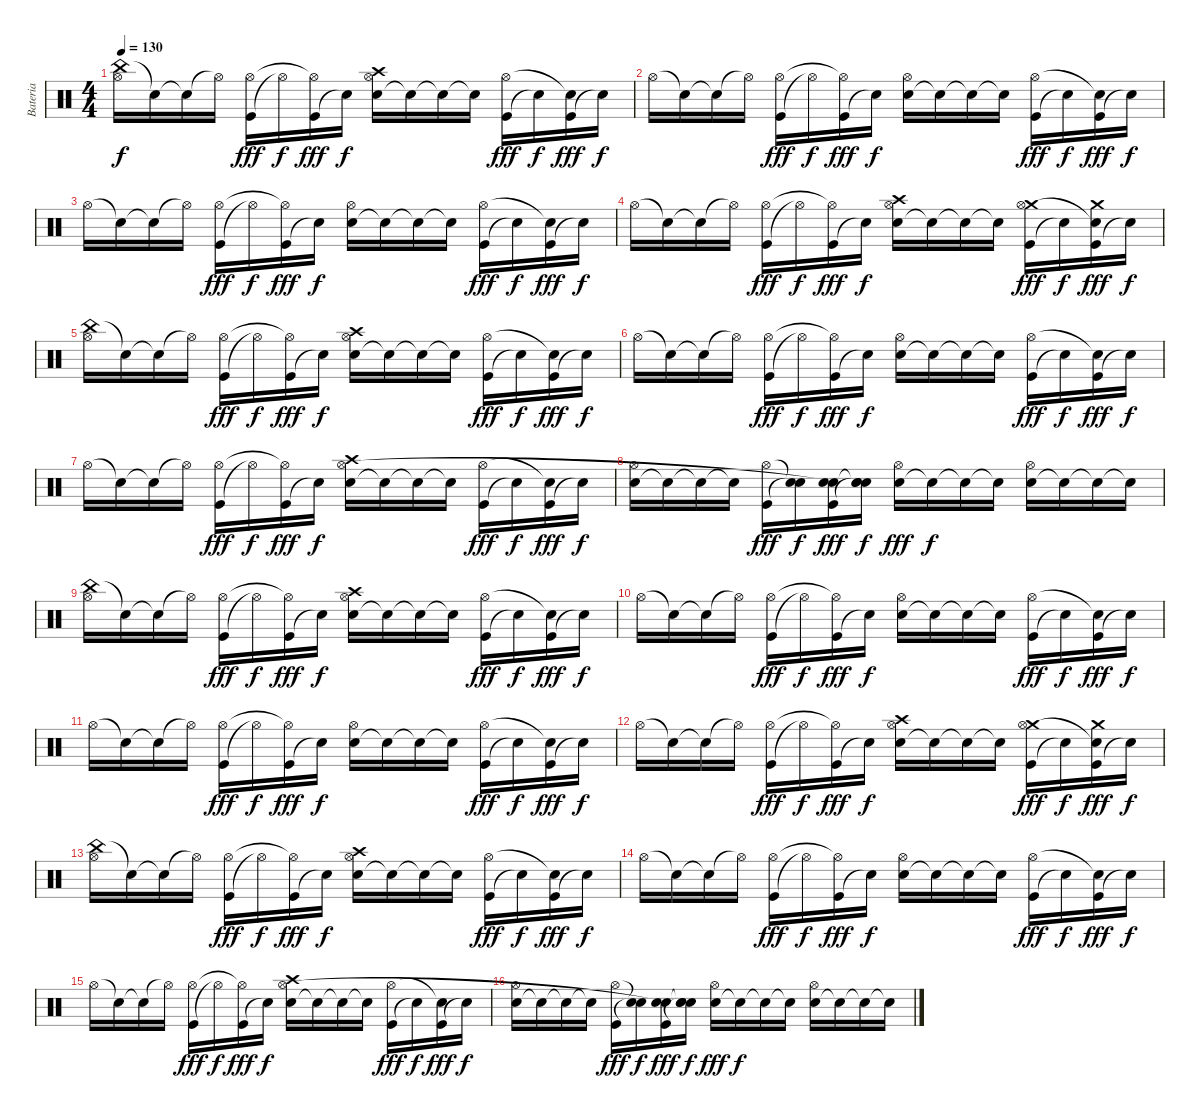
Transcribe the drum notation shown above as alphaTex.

\track ("Bateria" "Bateria") {instrument percussion}
\staff {score}
\articulation defaults
\ts (4 4)
\tempo 130
\clef neutral
\ks c
("China (hit)" "Hi-Hat (open)").16{dy f} "Snare (hit)"{t}.16 "Snare (hit)"{t}.16 "Hi-Hat (open)"{t}.16 ("Kick (hit)" "Hi-Hat (open)").16{dy fff} "Hi-Hat (open)"{t}.16{dy f} ("Kick (hit)" "Hi-Hat (open)"{t}).16{dy fff} "Snare (hit)"{t}.16{dy f} ("Electric Snare (hit)" "Crash high (hit)" "Hi-Hat (open)").16 "Snare (hit)"{t}.16 "Snare (hit)"{t}.16 "Snare (hit)"{t}.16 ("Kick (hit)" "Hi-Hat (open)").16{dy fff} "Snare (hit)"{t}.16{dy f} ("Kick (hit)" "Snare (hit)"{t}).16{dy fff} "Snare (hit)"{t}.16{dy f} |
"Hi-Hat (open)".16 "Snare (hit)"{t}.16 "Snare (hit)"{t}.16 "Hi-Hat (open)"{t}.16 ("Kick (hit)" "Hi-Hat (open)").16{dy fff} "Hi-Hat (open)"{t}.16{dy f} ("Kick (hit)" "Hi-Hat (open)"{t}).16{dy fff} "Snare (hit)"{t}.16{dy f} ("Electric Snare (hit)" "Hi-Hat (open)").16 "Snare (hit)"{t}.16 "Snare (hit)"{t}.16 "Snare (hit)"{t}.16 ("Kick (hit)" "Hi-Hat (open)").16{dy fff} "Snare (hit)"{t}.16{dy f} ("Kick (hit)" "Snare (hit)"{t}).16{dy fff} "Snare (hit)"{t}.16{dy f} |
"Hi-Hat (open)".16 "Snare (hit)"{t}.16 "Snare (hit)"{t}.16 "Hi-Hat (open)"{t}.16 ("Kick (hit)" "Hi-Hat (open)").16{dy fff} "Hi-Hat (open)"{t}.16{dy f} ("Kick (hit)" "Hi-Hat (open)"{t}).16{dy fff} "Snare (hit)"{t}.16{dy f} ("Electric Snare (hit)" "Hi-Hat (open)").16 "Snare (hit)"{t}.16 "Snare (hit)"{t}.16 "Snare (hit)"{t}.16 ("Kick (hit)" "Hi-Hat (open)").16{dy fff} "Snare (hit)"{t}.16{dy f} ("Kick (hit)" "Snare (hit)"{t}).16{dy fff} "Snare (hit)"{t}.16{dy f} |
"Hi-Hat (open)".16 "Snare (hit)"{t}.16 "Snare (hit)"{t}.16 "Hi-Hat (open)"{t}.16 ("Kick (hit)" "Hi-Hat (open)").16{dy fff} "Hi-Hat (open)"{t}.16{dy f} ("Kick (hit)" "Hi-Hat (open)"{t}).16{dy fff} "Snare (hit)"{t}.16{dy f} ("Electric Snare (hit)" "Crash high (hit)" "Hi-Hat (open)").16 "Snare (hit)"{t}.16 "Snare (hit)"{t}.16 "Snare (hit)"{t}.16 ("Kick (hit)" "Crash medium (hit)" "Hi-Hat (open)").16{dy fff} "Snare (hit)"{t}.16{dy f} ("Kick (hit)" "Crash medium (hit)" "Snare (hit)"{t}).16{dy fff} "Snare (hit)"{t}.16{dy f} |
("China (hit)" "Hi-Hat (open)").16 "Snare (hit)"{t}.16 "Snare (hit)"{t}.16 "Hi-Hat (open)"{t}.16 ("Kick (hit)" "Hi-Hat (open)").16{dy fff} "Hi-Hat (open)"{t}.16{dy f} ("Kick (hit)" "Hi-Hat (open)"{t}).16{dy fff} "Snare (hit)"{t}.16{dy f} ("Electric Snare (hit)" "Crash high (hit)" "Hi-Hat (open)").16 "Snare (hit)"{t}.16 "Snare (hit)"{t}.16 "Snare (hit)"{t}.16 ("Kick (hit)" "Hi-Hat (open)").16{dy fff} "Snare (hit)"{t}.16{dy f} ("Kick (hit)" "Snare (hit)"{t}).16{dy fff} "Snare (hit)"{t}.16{dy f} |
"Hi-Hat (open)".16 "Snare (hit)"{t}.16 "Snare (hit)"{t}.16 "Hi-Hat (open)"{t}.16 ("Kick (hit)" "Hi-Hat (open)").16{dy fff} "Hi-Hat (open)"{t}.16{dy f} ("Kick (hit)" "Hi-Hat (open)"{t}).16{dy fff} "Snare (hit)"{t}.16{dy f} ("Electric Snare (hit)" "Hi-Hat (open)").16 "Snare (hit)"{t}.16 "Snare (hit)"{t}.16 "Snare (hit)"{t}.16 ("Kick (hit)" "Hi-Hat (open)").16{dy fff} "Snare (hit)"{t}.16{dy f} ("Kick (hit)" "Snare (hit)"{t}).16{dy fff} "Snare (hit)"{t}.16{dy f} |
"Hi-Hat (open)".16 "Snare (hit)"{t}.16 "Snare (hit)"{t}.16 "Hi-Hat (open)"{t}.16 ("Kick (hit)" "Hi-Hat (open)").16{dy fff} "Hi-Hat (open)"{t}.16{dy f} ("Kick (hit)" "Hi-Hat (open)"{t}).16{dy fff} "Snare (hit)"{t}.16{dy f} ("Electric Snare (hit)" "Crash high (hit)" "Hi-Hat (open)").16 "Snare (hit)"{t}.16 "Snare (hit)"{t}.16 "Snare (hit)"{t}.16 ("Kick (hit)" "Hi-Hat (open)").16{dy fff} "Snare (hit)"{t}.16{dy f} ("Kick (hit)" "Snare (hit)"{t}).16{dy fff} "Snare (hit)"{t}.16{dy f} |
("Electric Snare (hit)" "Hi-Hat (open)").16 "Snare (hit)"{t}.16 "Snare (hit)"{t}.16 "Snare (hit)"{t}.16 ("Kick (hit)" "Hi-Hat (open)").16{dy fff} ("Snare (hit)"{t} "Snare (hit)"{t}).16{dy f} ("Kick (hit)" "Electric Snare (hit)" "Snare (hit)"{t}).16{dy fff} ("Snare (hit)"{t} "Electric Snare (hit)" "Snare (hit)"{t}).16{dy f} ("Electric Snare (hit)" "Hi-Hat (open)").16{dy fff} "Snare (hit)"{t}.16{dy f} "Snare (hit)"{t}.16 "Snare (hit)"{t}.16 ("Electric Snare (hit)" "Hi-Hat (open)").16 "Snare (hit)"{t}.16 "Snare (hit)"{t}.16 "Snare (hit)"{t}.16 |
("China (hit)" "Hi-Hat (open)").16 "Snare (hit)"{t}.16 "Snare (hit)"{t}.16 "Hi-Hat (open)"{t}.16 ("Kick (hit)" "Hi-Hat (open)").16{dy fff} "Hi-Hat (open)"{t}.16{dy f} ("Kick (hit)" "Hi-Hat (open)"{t}).16{dy fff} "Snare (hit)"{t}.16{dy f} ("Electric Snare (hit)" "Crash high (hit)" "Hi-Hat (open)").16 "Snare (hit)"{t}.16 "Snare (hit)"{t}.16 "Snare (hit)"{t}.16 ("Kick (hit)" "Hi-Hat (open)").16{dy fff} "Snare (hit)"{t}.16{dy f} ("Kick (hit)" "Snare (hit)"{t}).16{dy fff} "Snare (hit)"{t}.16{dy f} |
"Hi-Hat (open)".16 "Snare (hit)"{t}.16 "Snare (hit)"{t}.16 "Hi-Hat (open)"{t}.16 ("Kick (hit)" "Hi-Hat (open)").16{dy fff} "Hi-Hat (open)"{t}.16{dy f} ("Kick (hit)" "Hi-Hat (open)"{t}).16{dy fff} "Snare (hit)"{t}.16{dy f} ("Electric Snare (hit)" "Hi-Hat (open)").16 "Snare (hit)"{t}.16 "Snare (hit)"{t}.16 "Snare (hit)"{t}.16 ("Kick (hit)" "Hi-Hat (open)").16{dy fff} "Snare (hit)"{t}.16{dy f} ("Kick (hit)" "Snare (hit)"{t}).16{dy fff} "Snare (hit)"{t}.16{dy f} |
"Hi-Hat (open)".16 "Snare (hit)"{t}.16 "Snare (hit)"{t}.16 "Hi-Hat (open)"{t}.16 ("Kick (hit)" "Hi-Hat (open)").16{dy fff} "Hi-Hat (open)"{t}.16{dy f} ("Kick (hit)" "Hi-Hat (open)"{t}).16{dy fff} "Snare (hit)"{t}.16{dy f} ("Electric Snare (hit)" "Hi-Hat (open)").16 "Snare (hit)"{t}.16 "Snare (hit)"{t}.16 "Snare (hit)"{t}.16 ("Kick (hit)" "Hi-Hat (open)").16{dy fff} "Snare (hit)"{t}.16{dy f} ("Kick (hit)" "Snare (hit)"{t}).16{dy fff} "Snare (hit)"{t}.16{dy f} |
"Hi-Hat (open)".16 "Snare (hit)"{t}.16 "Snare (hit)"{t}.16 "Hi-Hat (open)"{t}.16 ("Kick (hit)" "Hi-Hat (open)").16{dy fff} "Hi-Hat (open)"{t}.16{dy f} ("Kick (hit)" "Hi-Hat (open)"{t}).16{dy fff} "Snare (hit)"{t}.16{dy f} ("Electric Snare (hit)" "Crash high (hit)" "Hi-Hat (open)").16 "Snare (hit)"{t}.16 "Snare (hit)"{t}.16 "Snare (hit)"{t}.16 ("Kick (hit)" "Crash medium (hit)" "Hi-Hat (open)").16{dy fff} "Snare (hit)"{t}.16{dy f} ("Kick (hit)" "Crash medium (hit)" "Snare (hit)"{t}).16{dy fff} "Snare (hit)"{t}.16{dy f} |
("China (hit)" "Hi-Hat (open)").16 "Snare (hit)"{t}.16 "Snare (hit)"{t}.16 "Hi-Hat (open)"{t}.16 ("Kick (hit)" "Hi-Hat (open)").16{dy fff} "Hi-Hat (open)"{t}.16{dy f} ("Kick (hit)" "Hi-Hat (open)"{t}).16{dy fff} "Snare (hit)"{t}.16{dy f} ("Electric Snare (hit)" "Crash high (hit)" "Hi-Hat (open)").16 "Snare (hit)"{t}.16 "Snare (hit)"{t}.16 "Snare (hit)"{t}.16 ("Kick (hit)" "Hi-Hat (open)").16{dy fff} "Snare (hit)"{t}.16{dy f} ("Kick (hit)" "Snare (hit)"{t}).16{dy fff} "Snare (hit)"{t}.16{dy f} |
"Hi-Hat (open)".16 "Snare (hit)"{t}.16 "Snare (hit)"{t}.16 "Hi-Hat (open)"{t}.16 ("Kick (hit)" "Hi-Hat (open)").16{dy fff} "Hi-Hat (open)"{t}.16{dy f} ("Kick (hit)" "Hi-Hat (open)"{t}).16{dy fff} "Snare (hit)"{t}.16{dy f} ("Electric Snare (hit)" "Hi-Hat (open)").16 "Snare (hit)"{t}.16 "Snare (hit)"{t}.16 "Snare (hit)"{t}.16 ("Kick (hit)" "Hi-Hat (open)").16{dy fff} "Snare (hit)"{t}.16{dy f} ("Kick (hit)" "Snare (hit)"{t}).16{dy fff} "Snare (hit)"{t}.16{dy f} |
"Hi-Hat (open)".16 "Snare (hit)"{t}.16 "Snare (hit)"{t}.16 "Hi-Hat (open)"{t}.16 ("Kick (hit)" "Hi-Hat (open)").16{dy fff} "Hi-Hat (open)"{t}.16{dy f} ("Kick (hit)" "Hi-Hat (open)"{t}).16{dy fff} "Snare (hit)"{t}.16{dy f} ("Electric Snare (hit)" "Crash high (hit)" "Hi-Hat (open)").16 "Snare (hit)"{t}.16 "Snare (hit)"{t}.16 "Snare (hit)"{t}.16 ("Kick (hit)" "Hi-Hat (open)").16{dy fff} "Snare (hit)"{t}.16{dy f} ("Kick (hit)" "Snare (hit)"{t}).16{dy fff} "Snare (hit)"{t}.16{dy f} |
("Electric Snare (hit)" "Hi-Hat (open)").16 "Snare (hit)"{t}.16 "Snare (hit)"{t}.16 "Snare (hit)"{t}.16 ("Kick (hit)" "Hi-Hat (open)").16{dy fff} ("Snare (hit)"{t} "Snare (hit)"{t}).16{dy f} ("Kick (hit)" "Electric Snare (hit)" "Snare (hit)"{t}).16{dy fff} ("Snare (hit)"{t} "Electric Snare (hit)" "Snare (hit)"{t}).16{dy f} ("Electric Snare (hit)" "Hi-Hat (open)").16{dy fff} "Snare (hit)"{t}.16{dy f} "Snare (hit)"{t}.16 "Snare (hit)"{t}.16 ("Electric Snare (hit)" "Hi-Hat (open)").16 "Snare (hit)"{t}.16 "Snare (hit)"{t}.16 "Snare (hit)"{t}.16
